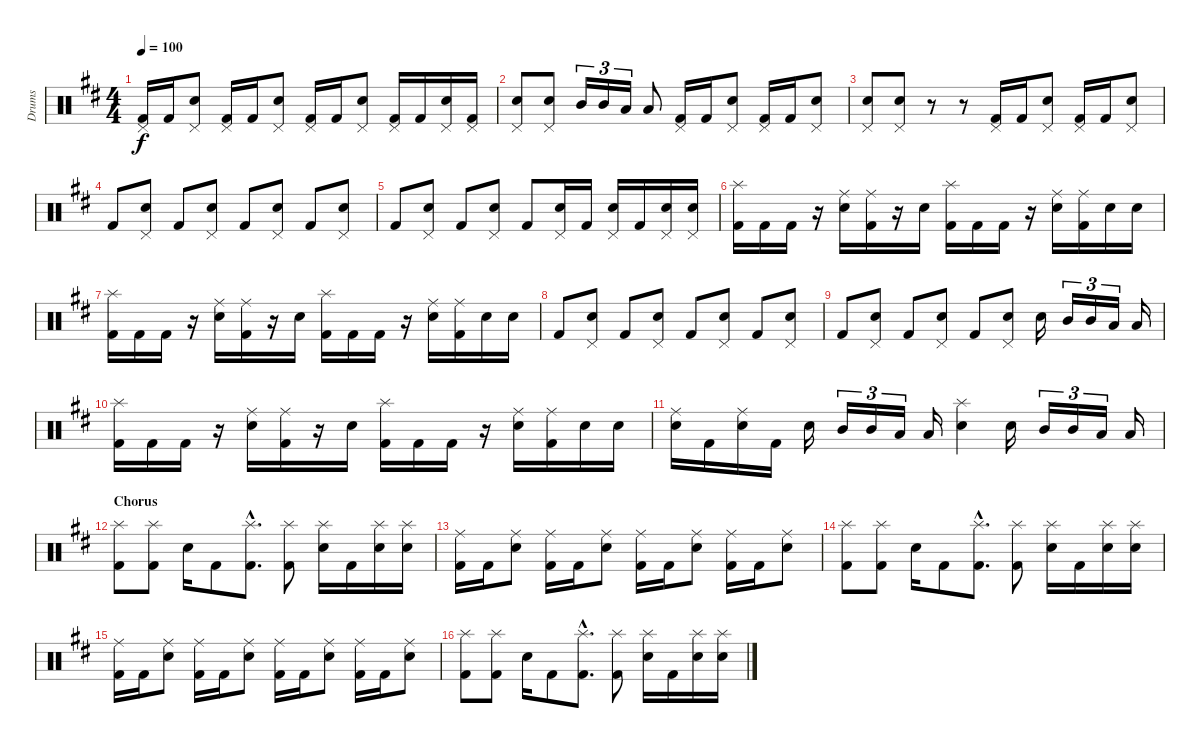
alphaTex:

\track ("Drums" "Drums") {instrument percussion}
\staff {score}
\articulation defaults
\ts (4 4)
\tempo 100
\clef neutral
\ks d
("Kick (hit) 2" "Pedal Hi-Hat (hit)").16{dy f} "Kick (hit) 2".16 ("Electric Snare (hit)" "Pedal Hi-Hat (hit)").8 ("Kick (hit) 2" "Pedal Hi-Hat (hit)").16 "Kick (hit) 2".16 ("Electric Snare (hit)" "Pedal Hi-Hat (hit)").8 ("Kick (hit) 2" "Pedal Hi-Hat (hit)").16 "Kick (hit) 2".16 ("Electric Snare (hit)" "Pedal Hi-Hat (hit)").8 ("Kick (hit) 2" "Pedal Hi-Hat (hit)").16 "Kick (hit) 2".16 ("Electric Snare (hit)" "Pedal Hi-Hat (hit)").16 ("Kick (hit) 2" "Pedal Hi-Hat (hit)").16 |
("Electric Snare (hit)" "Pedal Hi-Hat (hit)").8 ("Electric Snare (hit)" "Pedal Hi-Hat (hit)").8 "Mid Tom (hit)".16{tu (3 2)} "Mid Tom (hit)".16{tu (3 2)} "Low Tom (hit)".16{tu (3 2)} "Low Tom (hit)".8 ("Kick (hit) 2" "Pedal Hi-Hat (hit)").16 "Kick (hit) 2".16 ("Electric Snare (hit)" "Pedal Hi-Hat (hit)").8 ("Kick (hit) 2" "Pedal Hi-Hat (hit)").16 "Kick (hit) 2".16 ("Electric Snare (hit)" "Pedal Hi-Hat (hit)").8 |
("Electric Snare (hit)" "Pedal Hi-Hat (hit)").8 ("Electric Snare (hit)" "Pedal Hi-Hat (hit)").8 r.8 r.8 ("Kick (hit) 2" "Pedal Hi-Hat (hit)").16 "Kick (hit) 2".16 ("Electric Snare (hit)" "Pedal Hi-Hat (hit)").8 ("Kick (hit) 2" "Pedal Hi-Hat (hit)").16 "Kick (hit) 2".16 ("Electric Snare (hit)" "Pedal Hi-Hat (hit)").8 |
"Kick (hit) 2".8 ("Electric Snare (hit)" "Pedal Hi-Hat (hit)").8 "Kick (hit) 2".8 ("Electric Snare (hit)" "Pedal Hi-Hat (hit)").8 "Kick (hit) 2".8 ("Electric Snare (hit)" "Pedal Hi-Hat (hit)").8 "Kick (hit) 2".8 ("Electric Snare (hit)" "Pedal Hi-Hat (hit)").8 |
"Kick (hit) 2".8 ("Electric Snare (hit)" "Pedal Hi-Hat (hit)").8 "Kick (hit) 2".8 ("Electric Snare (hit)" "Pedal Hi-Hat (hit)").8 "Kick (hit) 2".8 ("Electric Snare (hit)" "Pedal Hi-Hat (hit)").16 "Kick (hit) 2".16 ("Electric Snare (hit)" "Pedal Hi-Hat (hit)").16 "Kick (hit) 2".16 ("Electric Snare (hit)" "Pedal Hi-Hat (hit)").16 ("Electric Snare (hit)" "Pedal Hi-Hat (hit)").16 |
("Kick (hit) 2" "Splash (hit)").16 "Kick (hit) 2".16 "Kick (hit) 2".16 r.16 ("Electric Snare (hit)" "Ride (middle)").16 ("Kick (hit) 2" "Ride (middle)").16 r.16 "Electric Snare (hit)".16 ("Kick (hit) 2" "Splash (hit)").16 "Kick (hit) 2".16 "Kick (hit) 2".16 r.16 ("Electric Snare (hit)" "Ride (middle)").16 ("Kick (hit) 2" "Ride (middle)").16 "Electric Snare (hit)".16 "Electric Snare (hit)".16 |
("Kick (hit) 2" "Splash (hit)").16 "Kick (hit) 2".16 "Kick (hit) 2".16 r.16 ("Electric Snare (hit)" "Ride (middle)").16 ("Kick (hit) 2" "Ride (middle)").16 r.16 "Electric Snare (hit)".16 ("Kick (hit) 2" "Splash (hit)").16 "Kick (hit) 2".16 "Kick (hit) 2".16 r.16 ("Electric Snare (hit)" "Ride (middle)").16 ("Kick (hit) 2" "Ride (middle)").16 "Electric Snare (hit)".16 "Electric Snare (hit)".16 |
"Kick (hit) 2".8 ("Electric Snare (hit)" "Pedal Hi-Hat (hit)").8 "Kick (hit) 2".8 ("Electric Snare (hit)" "Pedal Hi-Hat (hit)").8 "Kick (hit) 2".8 ("Electric Snare (hit)" "Pedal Hi-Hat (hit)").8 "Kick (hit) 2".8 ("Electric Snare (hit)" "Pedal Hi-Hat (hit)").8 |
"Kick (hit) 2".8 ("Electric Snare (hit)" "Pedal Hi-Hat (hit)").8 "Kick (hit) 2".8 ("Electric Snare (hit)" "Pedal Hi-Hat (hit)").8 "Kick (hit) 2".8 ("Electric Snare (hit)" "Pedal Hi-Hat (hit)").8 "Electric Snare (hit)".16 "Mid Tom (hit)".16{tu (3 2)} "Mid Tom (hit)".16{tu (3 2)} "Low Tom (hit)".16{tu (3 2)} "Low Tom (hit)".16 |
("Kick (hit) 2" "Splash (hit)").16 "Kick (hit) 2".16 "Kick (hit) 2".16 r.16 ("Electric Snare (hit)" "Ride (middle)").16 ("Kick (hit) 2" "Ride (middle)").16 r.16 "Electric Snare (hit)".16 ("Kick (hit) 2" "Splash (hit)").16 "Kick (hit) 2".16 "Kick (hit) 2".16 r.16 ("Electric Snare (hit)" "Ride (middle)").16 ("Kick (hit) 2" "Ride (middle)").16 "Electric Snare (hit)".16 "Electric Snare (hit)".16 |
("Electric Snare (hit)" "Ride (middle)").16 "Kick (hit) 2".16 ("Electric Snare (hit)" "Ride (middle)").16 "Kick (hit) 2".16 "Electric Snare (hit)".16 "Mid Tom (hit)".16{tu (3 2)} "Mid Tom (hit)".16{tu (3 2)} "Low Tom (hit)".16{tu (3 2)} "Low Tom (hit)".16 ("Electric Snare (hit)" "Splash (hit)").4 "Electric Snare (hit)".16 "Mid Tom (hit)".16{tu (3 2)} "Mid Tom (hit)".16{tu (3 2)} "Low Tom (hit)".16{tu (3 2)} "Low Tom (hit)".16 |
\section ("" "Chorus")
("Kick (hit) 2" "Splash (hit)").8 ("Kick (hit) 2" "Splash (hit)").8 "Electric Snare (hit)".16 "Kick (hit) 2".8 ("Kick (hit) 2"{hac} "Splash (hit)"{hac}).8{d} ("Kick (hit) 2" "Splash (hit)").8 ("Electric Snare (hit)" "Splash (hit)").16 "Kick (hit) 2".16 ("Electric Snare (hit)" "Splash (hit)").16 ("Electric Snare (hit)" "Splash (hit)").16 |
("Kick (hit) 2" "Ride (middle)").16 "Kick (hit) 2".16 ("Electric Snare (hit)" "Ride (middle)").8 ("Kick (hit) 2" "Ride (middle)").16 "Kick (hit) 2".16 ("Electric Snare (hit)" "Ride (middle)").8 ("Kick (hit) 2" "Ride (middle)").16 "Kick (hit) 2".16 ("Electric Snare (hit)" "Ride (middle)").8 ("Kick (hit) 2" "Ride (middle)").16 "Kick (hit) 2".16 ("Electric Snare (hit)" "Ride (middle)").8 |
("Kick (hit) 2" "Splash (hit)").8 ("Kick (hit) 2" "Splash (hit)").8 "Electric Snare (hit)".16 "Kick (hit) 2".8 ("Kick (hit) 2"{hac} "Splash (hit)"{hac}).8{d} ("Kick (hit) 2" "Splash (hit)").8 ("Electric Snare (hit)" "Splash (hit)").16 "Kick (hit) 2".16 ("Electric Snare (hit)" "Splash (hit)").16 ("Electric Snare (hit)" "Splash (hit)").16 |
("Kick (hit) 2" "Ride (middle)").16 "Kick (hit) 2".16 ("Electric Snare (hit)" "Ride (middle)").8 ("Kick (hit) 2" "Ride (middle)").16 "Kick (hit) 2".16 ("Electric Snare (hit)" "Ride (middle)").8 ("Kick (hit) 2" "Ride (middle)").16 "Kick (hit) 2".16 ("Electric Snare (hit)" "Ride (middle)").8 ("Kick (hit) 2" "Ride (middle)").16 "Kick (hit) 2".16 ("Electric Snare (hit)" "Ride (middle)").8 |
("Kick (hit) 2" "Splash (hit)").8 ("Kick (hit) 2" "Splash (hit)").8 "Electric Snare (hit)".16 "Kick (hit) 2".8 ("Kick (hit) 2"{hac} "Splash (hit)"{hac}).8{d} ("Kick (hit) 2" "Splash (hit)").8 ("Electric Snare (hit)" "Splash (hit)").16 "Kick (hit) 2".16 ("Electric Snare (hit)" "Splash (hit)").16 ("Electric Snare (hit)" "Splash (hit)").16
